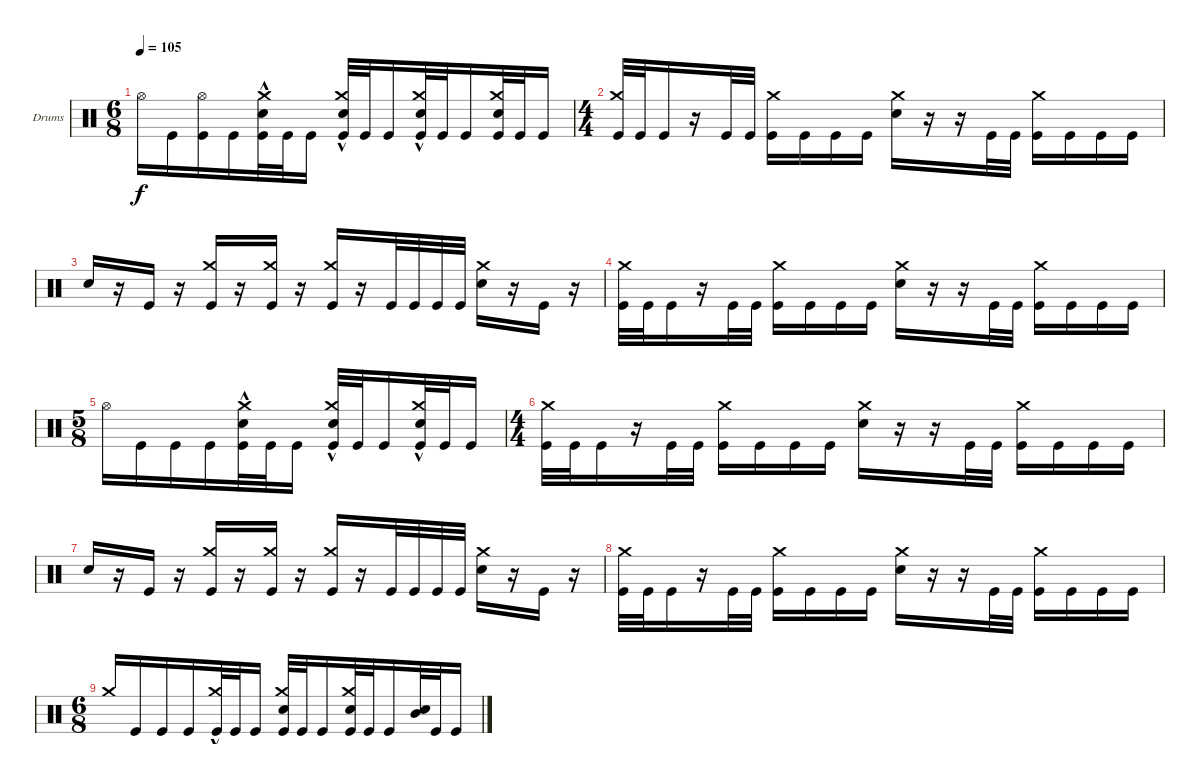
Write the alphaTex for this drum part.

\defaultSystemsLayout 4
\bracketExtendMode groupsimilarinstruments
\firstSystemTrackNameOrientation horizontal
\otherSystemsTrackNameOrientation horizontal
\track ("Drumkit" "Drums") {instrument percussion}
\staff {score}
\articulation defaults
\ts (6 8)
\tempo 105
\clef neutral
\ks c "Hi-Hat (open)".16{dy f} "Kick (hit)".16
("Hi-Hat (open)" "Kick (hit)").16 "Kick (hit)".16 ("Kick (hit)" "Crash medium (hit)"{hac} "Snare (hit) 2").32 "Kick (hit)".32 "Kick (hit)".16 ("Kick (hit)" "Crash medium (hit)"{hac} "Snare (hit) 2").32 "Kick (hit)".32 "Kick (hit)".16 ("Kick (hit)" "Crash medium (hit)"{hac} "Snare (hit) 2").32 "Kick (hit)".32 "Kick (hit)".16 ("Kick (hit)" "Crash medium (hit)" "Snare (hit) 2").32 "Kick (hit)".32 "Kick (hit)".16 |
\ts (4 4)
("Kick (hit)" "Crash medium (hit)").32{beam invert} "Kick (hit)".32 "Kick (hit)".16 r.16 "Kick (hit)".32 "Kick (hit)".32 ("Crash medium (hit)" "Kick (hit)").16 "Kick (hit)".16 "Kick (hit)".16 "Kick (hit)".16 ("Snare (hit) 2" "Crash medium (hit)").16 r.16 r.16 "Kick (hit)".32 "Kick (hit)".32 ("Kick (hit)" "Crash medium (hit)").16 "Kick (hit)".16 "Kick (hit)".16 "Kick (hit)".16 |
"Snare (hit) 2".16 r.16 "Kick (hit)".16 r.16 ("Kick (hit)" "Crash medium (hit)").16 r.16 ("Kick (hit)" "Crash medium (hit)").16 r.16 ("Kick (hit)" "Crash medium (hit)").16{beam invert} r.16 "Kick (hit)".32 "Kick (hit)".32 "Kick (hit)".32 "Kick (hit)".32 ("Snare (hit) 2" "Crash medium (hit)").16 r.16 "Kick (hit)".16 r.16 |
("Kick (hit)" "Crash medium (hit)").32 "Kick (hit)".32 "Kick (hit)".16 r.16 "Kick (hit)".32 "Kick (hit)".32 ("Kick (hit)" "Crash medium (hit)").16 "Kick (hit)".16 "Kick (hit)".16 "Kick (hit)".16 ("Crash medium (hit)" "Snare (hit) 2").16 r.16 r.16 "Kick (hit)".32 "Kick (hit)".32 ("Kick (hit)" "Crash medium (hit)").16 "Kick (hit)".16 "Kick (hit)".16 "Kick (hit)".16 |
\ts (5 8)
"Hi-Hat (open)".16 "Kick (hit)".16 "Kick (hit)".16 "Kick (hit)".16 ("Crash medium (hit)"{hac} "Snare (hit) 2" "Kick (hit)").32 "Kick (hit)".32 "Kick (hit)".16 ("Crash medium (hit)"{hac} "Snare (hit) 2" "Kick (hit)").32 "Kick (hit)".32 "Kick (hit)".16 ("Crash medium (hit)"{hac} "Snare (hit) 2" "Kick (hit)").32 "Kick (hit)".32 "Kick (hit)".16 |
\ts (4 4)
("Kick (hit)" "Crash medium (hit)").32 "Kick (hit)".32 "Kick (hit)".16 r.16 "Kick (hit)".32 "Kick (hit)".32 ("Kick (hit)" "Crash medium (hit)").16 "Kick (hit)".16 "Kick (hit)".16 "Kick (hit)".16 ("Crash medium (hit)" "Snare (hit) 2").16 r.16 r.16 "Kick (hit)".32 "Kick (hit)".32 ("Kick (hit)" "Crash medium (hit)").16 "Kick (hit)".16 "Kick (hit)".16 "Kick (hit)".16 |
"Snare (hit) 2".16 r.16 "Kick (hit)".16 r.16 ("Kick (hit)" "Crash medium (hit)").16 r.16 ("Kick (hit)" "Crash medium (hit)").16 r.16 ("Kick (hit)" "Crash medium (hit)").16{beam invert} r.16 "Kick (hit)".32 "Kick (hit)".32 "Kick (hit)".32 "Kick (hit)".32 ("Snare (hit) 2" "Crash medium (hit)").16 r.16 "Kick (hit)".16 r.16 |
("Kick (hit)" "Crash medium (hit)").32 "Kick (hit)".32 "Kick (hit)".16 r.16 "Kick (hit)".32 "Kick (hit)".32 ("Kick (hit)" "Crash medium (hit)").16 "Kick (hit)".16 "Kick (hit)".16 "Kick (hit)".16 ("Crash medium (hit)" "Snare (hit) 2").16 r.16 r.16 "Kick (hit)".32 "Kick (hit)".32 ("Kick (hit)" "Crash medium (hit)").16 "Kick (hit)".16 "Kick (hit)".16 "Kick (hit)".16 |
\ts (6 8)
"Crash medium (hit)".16{beam invert} "Kick (hit)".16 "Kick (hit)".16 "Kick (hit)".16 ("Kick (hit)" "Crash medium (hit)"{hac}).32 "Kick (hit)".32 "Kick (hit)".16 ("Crash medium (hit)" "Snare (hit) 2" "Kick (hit)").32 "Kick (hit)".32 "Kick (hit)".16 ("Kick (hit)" "Snare (hit) 2" "Crash medium (hit)").32 "Kick (hit)".32 "Kick (hit)".16 ("Snare (hit) 2" "Mid Tom (hit)").32 "Kick (hit)".32 "Kick (hit)".16
